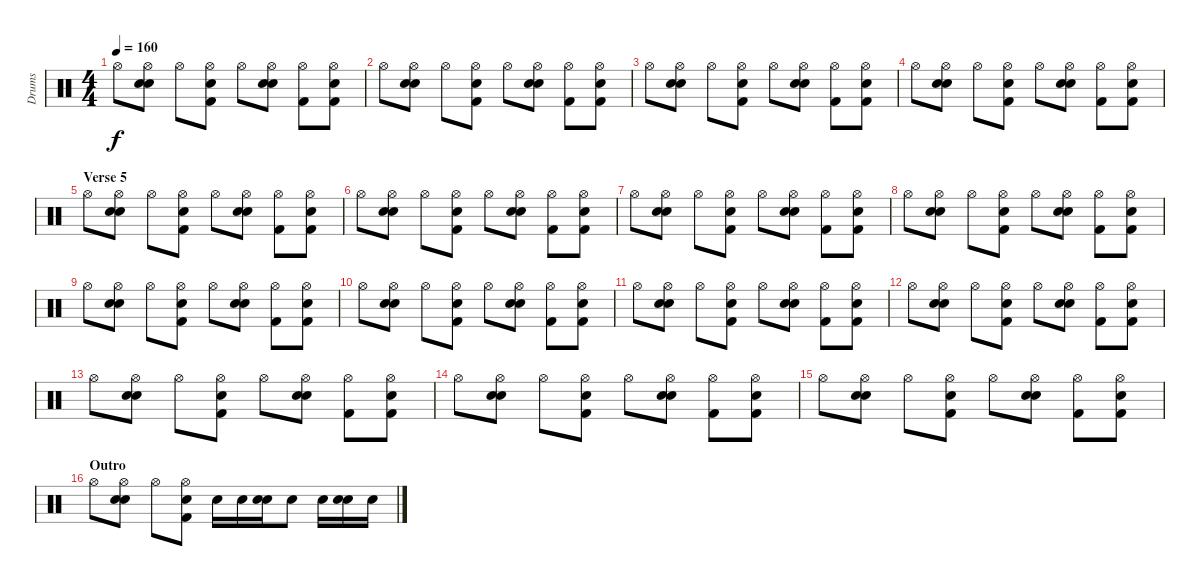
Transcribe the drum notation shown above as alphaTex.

\track ("Drums" "Drums") {instrument percussion}
\staff {score}
\articulation defaults
\ts (4 4)
\tempo 160
\clef neutral
\ks c "Hi-Hat (open)".8{dy f}
("Snare (hit) 2" "Hi-Hat (open)" "Hand Clap (hit)").8 "Hi-Hat (open)".8 ("Kick (hit) 2" "Hi-Hat (open)" "Hand Clap (hit)").8 "Hi-Hat (open)".8 ("Snare (hit) 2" "Hi-Hat (open)" "Hand Clap (hit)").8 ("Kick (hit) 2" "Hi-Hat (open)").8 ("Kick (hit) 2" "Hi-Hat (open)" "Hand Clap (hit)").8 |
"Hi-Hat (open)".8 ("Snare (hit) 2" "Hi-Hat (open)" "Hand Clap (hit)").8 "Hi-Hat (open)".8 ("Kick (hit) 2" "Hi-Hat (open)" "Hand Clap (hit)").8 "Hi-Hat (open)".8 ("Snare (hit) 2" "Hi-Hat (open)" "Hand Clap (hit)").8 ("Kick (hit) 2" "Hi-Hat (open)").8 ("Kick (hit) 2" "Hi-Hat (open)" "Hand Clap (hit)").8 |
"Hi-Hat (open)".8 ("Snare (hit) 2" "Hi-Hat (open)" "Hand Clap (hit)").8 "Hi-Hat (open)".8 ("Kick (hit) 2" "Hi-Hat (open)" "Hand Clap (hit)").8 "Hi-Hat (open)".8 ("Snare (hit) 2" "Hi-Hat (open)" "Hand Clap (hit)").8 ("Kick (hit) 2" "Hi-Hat (open)").8 ("Kick (hit) 2" "Hi-Hat (open)" "Hand Clap (hit)").8 |
"Hi-Hat (open)".8 ("Snare (hit) 2" "Hi-Hat (open)" "Hand Clap (hit)").8 "Hi-Hat (open)".8 ("Kick (hit) 2" "Hi-Hat (open)" "Hand Clap (hit)").8 "Hi-Hat (open)".8 ("Snare (hit) 2" "Hi-Hat (open)" "Hand Clap (hit)").8 ("Kick (hit) 2" "Hi-Hat (open)").8 ("Kick (hit) 2" "Hi-Hat (open)" "Hand Clap (hit)").8 |
\section ("" "Verse 5")
"Hi-Hat (open)".8 ("Snare (hit) 2" "Hi-Hat (open)" "Hand Clap (hit)").8 "Hi-Hat (open)".8 ("Kick (hit) 2" "Hi-Hat (open)" "Hand Clap (hit)").8 "Hi-Hat (open)".8 ("Snare (hit) 2" "Hi-Hat (open)" "Hand Clap (hit)").8 ("Kick (hit) 2" "Hi-Hat (open)").8 ("Kick (hit) 2" "Hi-Hat (open)" "Hand Clap (hit)").8 |
"Hi-Hat (open)".8 ("Snare (hit) 2" "Hi-Hat (open)" "Hand Clap (hit)").8 "Hi-Hat (open)".8 ("Kick (hit) 2" "Hi-Hat (open)" "Hand Clap (hit)").8 "Hi-Hat (open)".8 ("Snare (hit) 2" "Hi-Hat (open)" "Hand Clap (hit)").8 ("Kick (hit) 2" "Hi-Hat (open)").8 ("Kick (hit) 2" "Hi-Hat (open)" "Hand Clap (hit)").8 |
"Hi-Hat (open)".8 ("Snare (hit) 2" "Hi-Hat (open)" "Hand Clap (hit)").8 "Hi-Hat (open)".8 ("Kick (hit) 2" "Hi-Hat (open)" "Hand Clap (hit)").8 "Hi-Hat (open)".8 ("Snare (hit) 2" "Hi-Hat (open)" "Hand Clap (hit)").8 ("Kick (hit) 2" "Hi-Hat (open)").8 ("Kick (hit) 2" "Hi-Hat (open)" "Hand Clap (hit)").8 |
"Hi-Hat (open)".8 ("Snare (hit) 2" "Hi-Hat (open)" "Hand Clap (hit)").8 "Hi-Hat (open)".8 ("Kick (hit) 2" "Hi-Hat (open)" "Hand Clap (hit)").8 "Hi-Hat (open)".8 ("Snare (hit) 2" "Hi-Hat (open)" "Hand Clap (hit)").8 ("Kick (hit) 2" "Hi-Hat (open)").8 ("Kick (hit) 2" "Hi-Hat (open)" "Hand Clap (hit)").8 |
"Hi-Hat (open)".8 ("Snare (hit) 2" "Hi-Hat (open)" "Hand Clap (hit)").8 "Hi-Hat (open)".8 ("Kick (hit) 2" "Hi-Hat (open)" "Hand Clap (hit)").8 "Hi-Hat (open)".8 ("Snare (hit) 2" "Hi-Hat (open)" "Hand Clap (hit)").8 ("Kick (hit) 2" "Hi-Hat (open)").8 ("Kick (hit) 2" "Hi-Hat (open)" "Hand Clap (hit)").8 |
"Hi-Hat (open)".8 ("Snare (hit) 2" "Hi-Hat (open)" "Hand Clap (hit)").8 "Hi-Hat (open)".8 ("Kick (hit) 2" "Hi-Hat (open)" "Hand Clap (hit)").8 "Hi-Hat (open)".8 ("Snare (hit) 2" "Hi-Hat (open)" "Hand Clap (hit)").8 ("Kick (hit) 2" "Hi-Hat (open)").8 ("Kick (hit) 2" "Hi-Hat (open)" "Hand Clap (hit)").8 |
"Hi-Hat (open)".8 ("Snare (hit) 2" "Hi-Hat (open)" "Hand Clap (hit)").8 "Hi-Hat (open)".8 ("Kick (hit) 2" "Hi-Hat (open)" "Hand Clap (hit)").8 "Hi-Hat (open)".8 ("Snare (hit) 2" "Hi-Hat (open)" "Hand Clap (hit)").8 ("Kick (hit) 2" "Hi-Hat (open)").8 ("Kick (hit) 2" "Hi-Hat (open)" "Hand Clap (hit)").8 |
"Hi-Hat (open)".8 ("Snare (hit) 2" "Hi-Hat (open)" "Hand Clap (hit)").8 "Hi-Hat (open)".8 ("Kick (hit) 2" "Hi-Hat (open)" "Hand Clap (hit)").8 "Hi-Hat (open)".8 ("Snare (hit) 2" "Hi-Hat (open)" "Hand Clap (hit)").8 ("Kick (hit) 2" "Hi-Hat (open)").8 ("Kick (hit) 2" "Hi-Hat (open)" "Hand Clap (hit)").8 |
"Hi-Hat (open)".8 ("Snare (hit) 2" "Hi-Hat (open)" "Hand Clap (hit)").8 "Hi-Hat (open)".8 ("Kick (hit) 2" "Hi-Hat (open)" "Hand Clap (hit)").8 "Hi-Hat (open)".8 ("Snare (hit) 2" "Hi-Hat (open)" "Hand Clap (hit)").8 ("Kick (hit) 2" "Hi-Hat (open)").8 ("Kick (hit) 2" "Hi-Hat (open)" "Hand Clap (hit)").8 |
"Hi-Hat (open)".8 ("Snare (hit) 2" "Hi-Hat (open)" "Hand Clap (hit)").8 "Hi-Hat (open)".8 ("Kick (hit) 2" "Hi-Hat (open)" "Hand Clap (hit)").8 "Hi-Hat (open)".8 ("Snare (hit) 2" "Hi-Hat (open)" "Hand Clap (hit)").8 ("Kick (hit) 2" "Hi-Hat (open)").8 ("Kick (hit) 2" "Hi-Hat (open)" "Hand Clap (hit)").8 |
"Hi-Hat (open)".8 ("Snare (hit) 2" "Hi-Hat (open)" "Hand Clap (hit)").8 "Hi-Hat (open)".8 ("Kick (hit) 2" "Hi-Hat (open)" "Hand Clap (hit)").8 "Hi-Hat (open)".8 ("Snare (hit) 2" "Hi-Hat (open)" "Hand Clap (hit)").8 ("Kick (hit) 2" "Hi-Hat (open)").8 ("Kick (hit) 2" "Hi-Hat (open)" "Hand Clap (hit)").8 |
\section ("" "Outro")
"Hi-Hat (open)".8 ("Snare (hit) 2" "Hi-Hat (open)" "Hand Clap (hit)").8 "Hi-Hat (open)".8 ("Kick (hit) 2" "Hi-Hat (open)" "Hand Clap (hit)").8 "Snare (hit) 2".16 "Snare (hit) 2".16 ("Snare (hit) 2" "Hand Clap (hit)").16 "Snare (hit) 2".8 "Snare (hit) 2".16 ("Snare (hit) 2" "Hand Clap (hit)").16 "Snare (hit) 2".16
